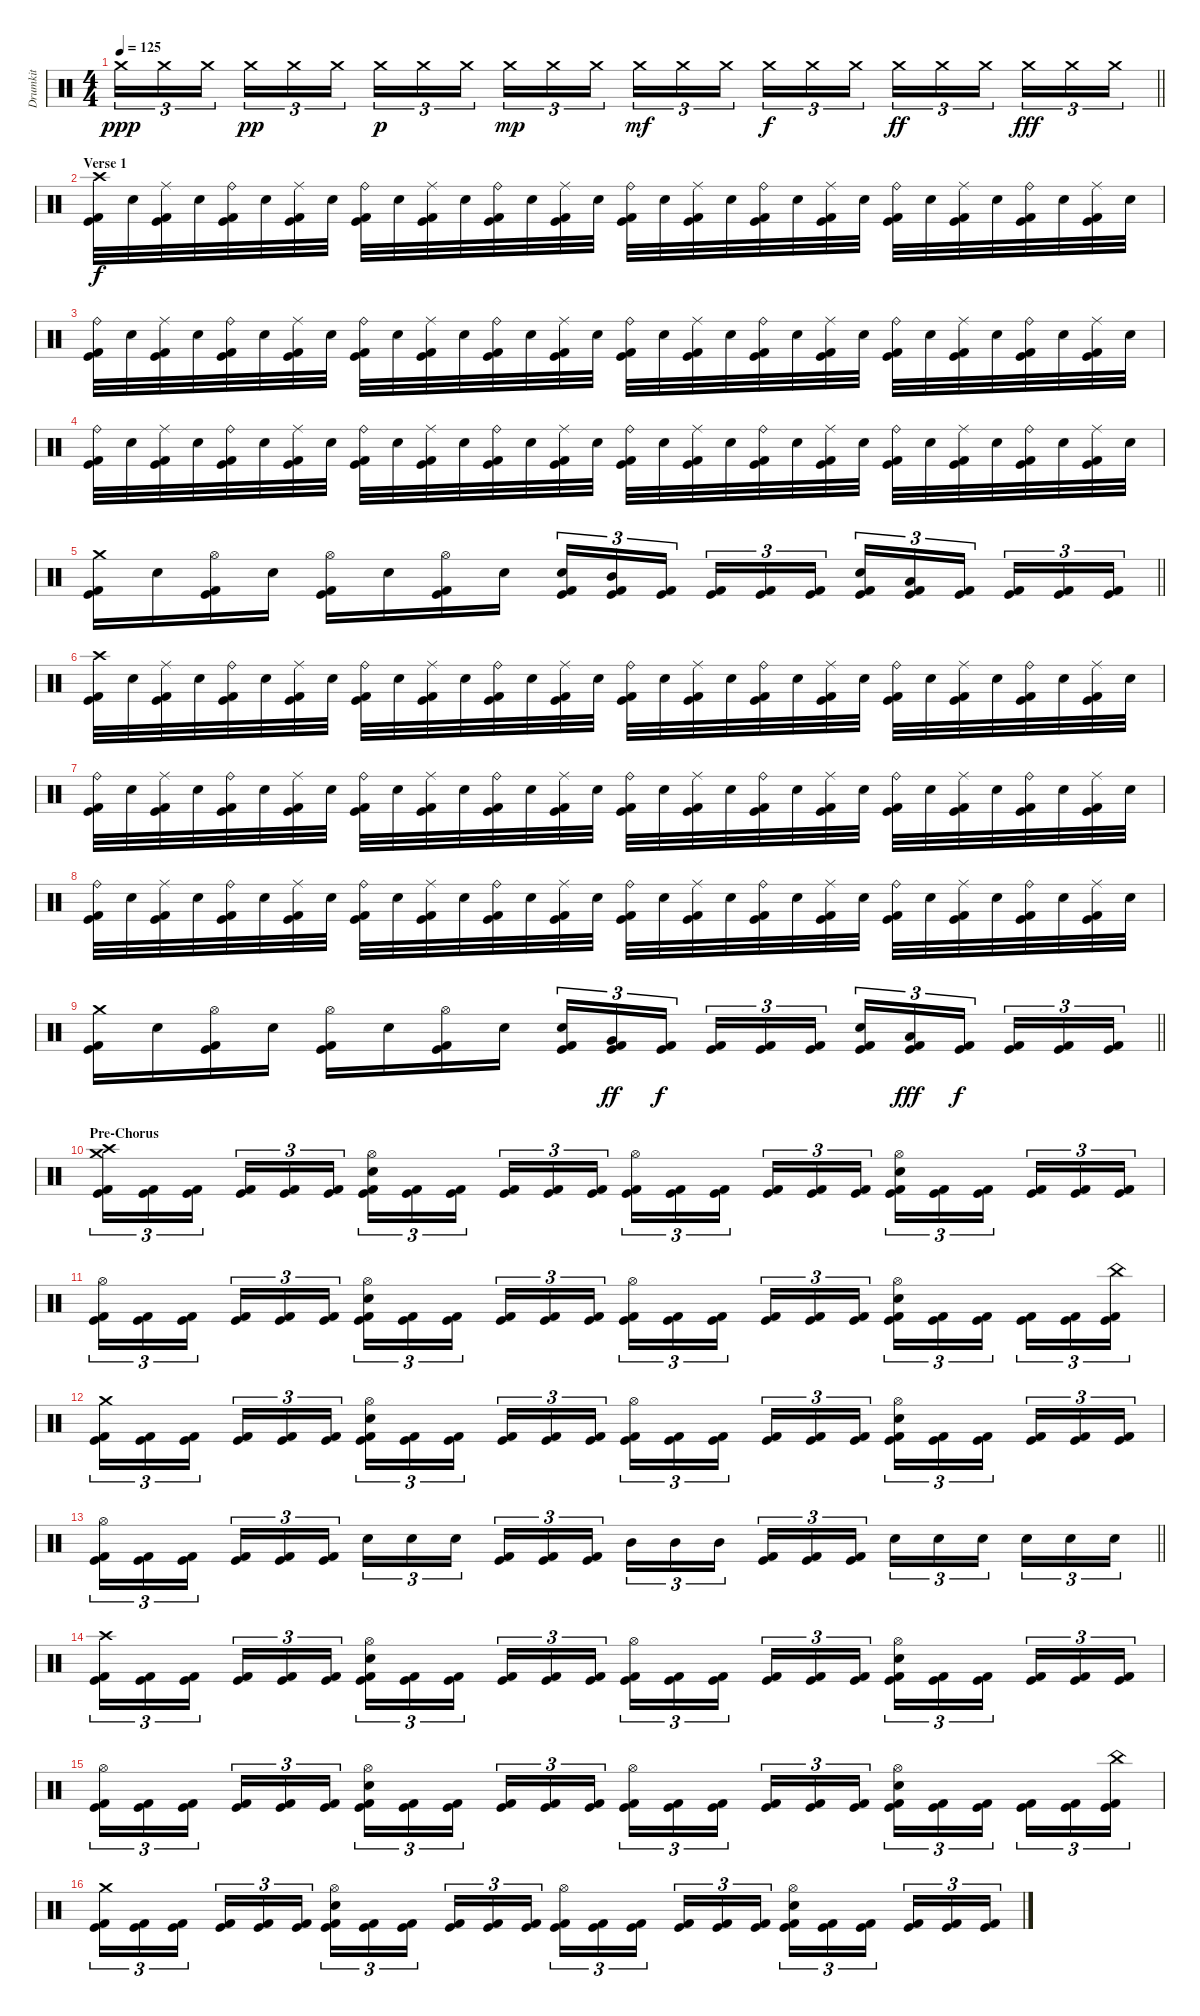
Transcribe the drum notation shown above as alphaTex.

\track ("Drumkit" "Drumkit") {instrument percussion}
\staff {score}
\articulation defaults
\ts (4 4)
\tempo 125
\clef neutral
\barLineRight lightlight
\ks c "Crash medium (hit)".16{tu (3 2) dy ppp} "Crash medium (hit)".16{tu (3 2)} "Crash medium (hit)".16{tu (3 2) beam splitsecondary} "Crash medium (hit)".16{tu (3 2) dy pp} "Crash medium (hit)".16{tu (3 2)} "Crash medium (hit)".16{tu (3 2)} "Crash medium (hit)".16{tu (3 2) dy p} "Crash medium (hit)".16{tu (3 2)} "Crash medium (hit)".16{tu (3 2) beam splitsecondary} "Crash medium (hit)".16{tu (3 2) dy mp} "Crash medium (hit)".16{tu (3 2)} "Crash medium (hit)".16{tu (3 2)} "Crash medium (hit)".16{tu (3 2) dy mf} "Crash medium (hit)".16{tu (3 2)} "Crash medium (hit)".16{tu (3 2) beam splitsecondary} "Crash medium (hit)".16{tu (3 2) dy f} "Crash medium (hit)".16{tu (3 2)} "Crash medium (hit)".16{tu (3 2)} "Crash medium (hit)".16{tu (3 2) dy ff} "Crash medium (hit)".16{tu (3 2)} "Crash medium (hit)".16{tu (3 2) beam splitsecondary} "Crash medium (hit)".16{tu (3 2) dy fff} "Crash medium (hit)".16{tu (3 2)} "Crash medium (hit)".16{tu (3 2)}
|
\section ("" "Verse 1")
("Crash high (hit)" "Kick (hit)" "Kick (hit) 2").32{dy f} "Electric Snare (hit)".32 ("Ride (middle)" "Kick (hit)" "Kick (hit) 2").32 "Electric Snare (hit)".32 ("Ride (bell)" "Kick (hit)" "Kick (hit) 2").32 "Electric Snare (hit)".32 ("Ride (middle)" "Kick (hit)" "Kick (hit) 2").32 "Electric Snare (hit)".32 ("Ride (bell)" "Kick (hit)" "Kick (hit) 2").32 "Electric Snare (hit)".32 ("Ride (middle)" "Kick (hit)" "Kick (hit) 2").32 "Electric Snare (hit)".32 ("Ride (bell)" "Kick (hit)" "Kick (hit) 2").32 "Electric Snare (hit)".32 ("Ride (middle)" "Kick (hit)" "Kick (hit) 2").32 "Electric Snare (hit)".32 ("Ride (bell)" "Kick (hit)" "Kick (hit) 2").32 "Electric Snare (hit)".32 ("Ride (middle)" "Kick (hit)" "Kick (hit) 2").32 "Electric Snare (hit)".32 ("Ride (bell)" "Kick (hit)" "Kick (hit) 2").32 "Electric Snare (hit)".32 ("Ride (middle)" "Kick (hit)" "Kick (hit) 2").32 "Electric Snare (hit)".32 ("Ride (bell)" "Kick (hit)" "Kick (hit) 2").32 "Electric Snare (hit)".32 ("Ride (middle)" "Kick (hit)" "Kick (hit) 2").32 "Electric Snare (hit)".32 ("Ride (bell)" "Kick (hit)" "Kick (hit) 2").32 "Electric Snare (hit)".32 ("Ride (middle)" "Kick (hit)" "Kick (hit) 2").32 "Electric Snare (hit)".32 |
("Ride (bell)" "Kick (hit)" "Kick (hit) 2").32 "Electric Snare (hit)".32 ("Ride (middle)" "Kick (hit)" "Kick (hit) 2").32 "Electric Snare (hit)".32 ("Ride (bell)" "Kick (hit)" "Kick (hit) 2").32 "Electric Snare (hit)".32 ("Ride (middle)" "Kick (hit)" "Kick (hit) 2").32 "Electric Snare (hit)".32 ("Ride (bell)" "Kick (hit)" "Kick (hit) 2").32 "Electric Snare (hit)".32 ("Ride (middle)" "Kick (hit)" "Kick (hit) 2").32 "Electric Snare (hit)".32 ("Ride (bell)" "Kick (hit)" "Kick (hit) 2").32 "Electric Snare (hit)".32 ("Ride (middle)" "Kick (hit)" "Kick (hit) 2").32 "Electric Snare (hit)".32 ("Ride (bell)" "Kick (hit)" "Kick (hit) 2").32 "Electric Snare (hit)".32 ("Ride (middle)" "Kick (hit)" "Kick (hit) 2").32 "Electric Snare (hit)".32 ("Ride (bell)" "Kick (hit)" "Kick (hit) 2").32 "Electric Snare (hit)".32 ("Ride (middle)" "Kick (hit)" "Kick (hit) 2").32 "Electric Snare (hit)".32 ("Ride (bell)" "Kick (hit)" "Kick (hit) 2").32 "Electric Snare (hit)".32 ("Ride (middle)" "Kick (hit)" "Kick (hit) 2").32 "Electric Snare (hit)".32 ("Ride (bell)" "Kick (hit)" "Kick (hit) 2").32 "Electric Snare (hit)".32 ("Ride (middle)" "Kick (hit)" "Kick (hit) 2").32 "Electric Snare (hit)".32 |
("Ride (bell)" "Kick (hit)" "Kick (hit) 2").32 "Electric Snare (hit)".32 ("Ride (middle)" "Kick (hit)" "Kick (hit) 2").32 "Electric Snare (hit)".32 ("Ride (bell)" "Kick (hit)" "Kick (hit) 2").32 "Electric Snare (hit)".32 ("Ride (middle)" "Kick (hit)" "Kick (hit) 2").32 "Electric Snare (hit)".32 ("Ride (bell)" "Kick (hit)" "Kick (hit) 2").32 "Electric Snare (hit)".32 ("Ride (middle)" "Kick (hit)" "Kick (hit) 2").32 "Electric Snare (hit)".32 ("Ride (bell)" "Kick (hit)" "Kick (hit) 2").32 "Electric Snare (hit)".32 ("Ride (middle)" "Kick (hit)" "Kick (hit) 2").32 "Electric Snare (hit)".32 ("Ride (bell)" "Kick (hit)" "Kick (hit) 2").32 "Electric Snare (hit)".32 ("Ride (middle)" "Kick (hit)" "Kick (hit) 2").32 "Electric Snare (hit)".32 ("Ride (bell)" "Kick (hit)" "Kick (hit) 2").32 "Electric Snare (hit)".32 ("Ride (middle)" "Kick (hit)" "Kick (hit) 2").32 "Electric Snare (hit)".32 ("Ride (bell)" "Kick (hit)" "Kick (hit) 2").32 "Electric Snare (hit)".32 ("Ride (middle)" "Kick (hit)" "Kick (hit) 2").32 "Electric Snare (hit)".32 ("Ride (bell)" "Kick (hit)" "Kick (hit) 2").32 "Electric Snare (hit)".32 ("Ride (middle)" "Kick (hit)" "Kick (hit) 2").32 "Electric Snare (hit)".32 |
\barLineRight lightlight
("Crash medium (hit)" "Kick (hit)" "Kick (hit) 2").16 "Electric Snare (hit)".16 ("Hi-Hat (open)" "Kick (hit)" "Kick (hit) 2").16 "Electric Snare (hit)".16 ("Hi-Hat (open)" "Kick (hit)" "Kick (hit) 2").16 "Electric Snare (hit)".16 ("Hi-Hat (open)" "Kick (hit)" "Kick (hit) 2").16 "Electric Snare (hit)".16 ("Electric Snare (hit)" "Kick (hit)" "Kick (hit) 2").16{tu (3 2)} ("Mid Tom (hit)" "Kick (hit)" "Kick (hit) 2").16{tu (3 2)} ("Kick (hit)" "Kick (hit) 2").16{tu (3 2) beam splitsecondary} ("Kick (hit)" "Kick (hit) 2").16{tu (3 2)} ("Kick (hit)" "Kick (hit) 2").16{tu (3 2)} ("Kick (hit)" "Kick (hit) 2").16{tu (3 2)} ("Electric Snare (hit)" "Kick (hit)" "Kick (hit) 2").16{tu (3 2)} ("Low Tom (hit)" "Kick (hit)" "Kick (hit) 2").16{tu (3 2)} ("Kick (hit)" "Kick (hit) 2").16{tu (3 2) beam splitsecondary} ("Kick (hit)" "Kick (hit) 2").16{tu (3 2)} ("Kick (hit)" "Kick (hit) 2").16{tu (3 2)} ("Kick (hit)" "Kick (hit) 2").16{tu (3 2)} |
("Crash high (hit)" "Kick (hit)" "Kick (hit) 2").32 "Electric Snare (hit)".32 ("Ride (middle)" "Kick (hit)" "Kick (hit) 2").32 "Electric Snare (hit)".32 ("Ride (bell)" "Kick (hit)" "Kick (hit) 2").32 "Electric Snare (hit)".32 ("Ride (middle)" "Kick (hit)" "Kick (hit) 2").32 "Electric Snare (hit)".32 ("Ride (bell)" "Kick (hit)" "Kick (hit) 2").32 "Electric Snare (hit)".32 ("Ride (middle)" "Kick (hit)" "Kick (hit) 2").32 "Electric Snare (hit)".32 ("Ride (bell)" "Kick (hit)" "Kick (hit) 2").32 "Electric Snare (hit)".32 ("Ride (middle)" "Kick (hit)" "Kick (hit) 2").32 "Electric Snare (hit)".32 ("Ride (bell)" "Kick (hit)" "Kick (hit) 2").32 "Electric Snare (hit)".32 ("Ride (middle)" "Kick (hit)" "Kick (hit) 2").32 "Electric Snare (hit)".32 ("Ride (bell)" "Kick (hit)" "Kick (hit) 2").32 "Electric Snare (hit)".32 ("Ride (middle)" "Kick (hit)" "Kick (hit) 2").32 "Electric Snare (hit)".32 ("Ride (bell)" "Kick (hit)" "Kick (hit) 2").32 "Electric Snare (hit)".32 ("Ride (middle)" "Kick (hit)" "Kick (hit) 2").32 "Electric Snare (hit)".32 ("Ride (bell)" "Kick (hit)" "Kick (hit) 2").32 "Electric Snare (hit)".32 ("Ride (middle)" "Kick (hit)" "Kick (hit) 2").32 "Electric Snare (hit)".32 |
("Ride (bell)" "Kick (hit)" "Kick (hit) 2").32 "Electric Snare (hit)".32 ("Ride (middle)" "Kick (hit)" "Kick (hit) 2").32 "Electric Snare (hit)".32 ("Ride (bell)" "Kick (hit)" "Kick (hit) 2").32 "Electric Snare (hit)".32 ("Ride (middle)" "Kick (hit)" "Kick (hit) 2").32 "Electric Snare (hit)".32 ("Ride (bell)" "Kick (hit)" "Kick (hit) 2").32 "Electric Snare (hit)".32 ("Ride (middle)" "Kick (hit)" "Kick (hit) 2").32 "Electric Snare (hit)".32 ("Ride (bell)" "Kick (hit)" "Kick (hit) 2").32 "Electric Snare (hit)".32 ("Ride (middle)" "Kick (hit)" "Kick (hit) 2").32 "Electric Snare (hit)".32 ("Ride (bell)" "Kick (hit)" "Kick (hit) 2").32 "Electric Snare (hit)".32 ("Ride (middle)" "Kick (hit)" "Kick (hit) 2").32 "Electric Snare (hit)".32 ("Ride (bell)" "Kick (hit)" "Kick (hit) 2").32 "Electric Snare (hit)".32 ("Ride (middle)" "Kick (hit)" "Kick (hit) 2").32 "Electric Snare (hit)".32 ("Ride (bell)" "Kick (hit)" "Kick (hit) 2").32 "Electric Snare (hit)".32 ("Ride (middle)" "Kick (hit)" "Kick (hit) 2").32 "Electric Snare (hit)".32 ("Ride (bell)" "Kick (hit)" "Kick (hit) 2").32 "Electric Snare (hit)".32 ("Ride (middle)" "Kick (hit)" "Kick (hit) 2").32 "Electric Snare (hit)".32 |
("Ride (bell)" "Kick (hit)" "Kick (hit) 2").32 "Electric Snare (hit)".32 ("Ride (middle)" "Kick (hit)" "Kick (hit) 2").32 "Electric Snare (hit)".32 ("Ride (bell)" "Kick (hit)" "Kick (hit) 2").32 "Electric Snare (hit)".32 ("Ride (middle)" "Kick (hit)" "Kick (hit) 2").32 "Electric Snare (hit)".32 ("Ride (bell)" "Kick (hit)" "Kick (hit) 2").32 "Electric Snare (hit)".32 ("Ride (middle)" "Kick (hit)" "Kick (hit) 2").32 "Electric Snare (hit)".32 ("Ride (bell)" "Kick (hit)" "Kick (hit) 2").32 "Electric Snare (hit)".32 ("Ride (middle)" "Kick (hit)" "Kick (hit) 2").32 "Electric Snare (hit)".32 ("Ride (bell)" "Kick (hit)" "Kick (hit) 2").32 "Electric Snare (hit)".32 ("Ride (middle)" "Kick (hit)" "Kick (hit) 2").32 "Electric Snare (hit)".32 ("Ride (bell)" "Kick (hit)" "Kick (hit) 2").32 "Electric Snare (hit)".32 ("Ride (middle)" "Kick (hit)" "Kick (hit) 2").32 "Electric Snare (hit)".32 ("Ride (bell)" "Kick (hit)" "Kick (hit) 2").32 "Electric Snare (hit)".32 ("Ride (middle)" "Kick (hit)" "Kick (hit) 2").32 "Electric Snare (hit)".32 ("Ride (bell)" "Kick (hit)" "Kick (hit) 2").32 "Electric Snare (hit)".32 ("Ride (middle)" "Kick (hit)" "Kick (hit) 2").32 "Electric Snare (hit)".32 |
\barLineRight lightlight
("Crash medium (hit)" "Kick (hit)" "Kick (hit) 2").16 "Electric Snare (hit)".16 ("Hi-Hat (open)" "Kick (hit)" "Kick (hit) 2").16 "Electric Snare (hit)".16 ("Hi-Hat (open)" "Kick (hit)" "Kick (hit) 2").16 "Electric Snare (hit)".16 ("Hi-Hat (open)" "Kick (hit)" "Kick (hit) 2").16 "Electric Snare (hit)".16 ("Electric Snare (hit)" "Kick (hit)" "Kick (hit) 2").16{tu (3 2)} ("Very Low Tom (hit)" "Kick (hit)" "Kick (hit) 2").16{tu (3 2) dy ff} ("Kick (hit)" "Kick (hit) 2").16{tu (3 2) dy f beam splitsecondary} ("Kick (hit)" "Kick (hit) 2").16{tu (3 2)} ("Kick (hit)" "Kick (hit) 2").16{tu (3 2)} ("Kick (hit)" "Kick (hit) 2").16{tu (3 2)} ("Electric Snare (hit)" "Kick (hit)" "Kick (hit) 2").16{tu (3 2)} ("Low Floor Tom (hit)" "Kick (hit)" "Kick (hit) 2").16{tu (3 2) dy fff} ("Kick (hit)" "Kick (hit) 2").16{tu (3 2) dy f beam splitsecondary} ("Kick (hit)" "Kick (hit) 2").16{tu (3 2)} ("Kick (hit)" "Kick (hit) 2").16{tu (3 2)} ("Kick (hit)" "Kick (hit) 2").16{tu (3 2)} |
\section ("" "Pre-Chorus")
("Crash high (hit)" "Crash medium (hit)" "Kick (hit)" "Kick (hit) 2").16{tu (3 2)} ("Kick (hit)" "Kick (hit) 2").16{tu (3 2)} ("Kick (hit)" "Kick (hit) 2").16{tu (3 2) beam splitsecondary} ("Kick (hit)" "Kick (hit) 2").16{tu (3 2)} ("Kick (hit)" "Kick (hit) 2").16{tu (3 2)} ("Kick (hit)" "Kick (hit) 2").16{tu (3 2)} ("Hi-Hat (open)" "Electric Snare (hit)" "Kick (hit)" "Kick (hit) 2").16{tu (3 2)} ("Kick (hit)" "Kick (hit) 2").16{tu (3 2)} ("Kick (hit)" "Kick (hit) 2").16{tu (3 2) beam splitsecondary} ("Kick (hit)" "Kick (hit) 2").16{tu (3 2)} ("Kick (hit)" "Kick (hit) 2").16{tu (3 2)} ("Kick (hit)" "Kick (hit) 2").16{tu (3 2)} ("Hi-Hat (open)" "Kick (hit)" "Kick (hit) 2").16{tu (3 2)} ("Kick (hit)" "Kick (hit) 2").16{tu (3 2)} ("Kick (hit)" "Kick (hit) 2").16{tu (3 2) beam splitsecondary} ("Kick (hit)" "Kick (hit) 2").16{tu (3 2)} ("Kick (hit)" "Kick (hit) 2").16{tu (3 2)} ("Kick (hit)" "Kick (hit) 2").16{tu (3 2)} ("Hi-Hat (open)" "Electric Snare (hit)" "Kick (hit)" "Kick (hit) 2").16{tu (3 2)} ("Kick (hit)" "Kick (hit) 2").16{tu (3 2)} ("Kick (hit)" "Kick (hit) 2").16{tu (3 2) beam splitsecondary} ("Kick (hit)" "Kick (hit) 2").16{tu (3 2)} ("Kick (hit)" "Kick (hit) 2").16{tu (3 2)} ("Kick (hit)" "Kick (hit) 2").16{tu (3 2)} |
("Hi-Hat (open)" "Kick (hit)" "Kick (hit) 2").16{tu (3 2)} ("Kick (hit)" "Kick (hit) 2").16{tu (3 2)} ("Kick (hit)" "Kick (hit) 2").16{tu (3 2) beam splitsecondary} ("Kick (hit)" "Kick (hit) 2").16{tu (3 2)} ("Kick (hit)" "Kick (hit) 2").16{tu (3 2)} ("Kick (hit)" "Kick (hit) 2").16{tu (3 2)} ("Hi-Hat (open)" "Electric Snare (hit)" "Kick (hit)" "Kick (hit) 2").16{tu (3 2)} ("Kick (hit)" "Kick (hit) 2").16{tu (3 2)} ("Kick (hit)" "Kick (hit) 2").16{tu (3 2) beam splitsecondary} ("Kick (hit)" "Kick (hit) 2").16{tu (3 2)} ("Kick (hit)" "Kick (hit) 2").16{tu (3 2)} ("Kick (hit)" "Kick (hit) 2").16{tu (3 2)} ("Hi-Hat (open)" "Kick (hit)" "Kick (hit) 2").16{tu (3 2)} ("Kick (hit)" "Kick (hit) 2").16{tu (3 2)} ("Kick (hit)" "Kick (hit) 2").16{tu (3 2) beam splitsecondary} ("Kick (hit)" "Kick (hit) 2").16{tu (3 2)} ("Kick (hit)" "Kick (hit) 2").16{tu (3 2)} ("Kick (hit)" "Kick (hit) 2").16{tu (3 2)} ("Hi-Hat (open)" "Electric Snare (hit)" "Kick (hit)" "Kick (hit) 2").16{tu (3 2)} ("Kick (hit)" "Kick (hit) 2").16{tu (3 2)} ("Kick (hit)" "Kick (hit) 2").16{tu (3 2) beam splitsecondary} ("Kick (hit)" "Kick (hit) 2").16{tu (3 2)} ("Kick (hit)" "Kick (hit) 2").16{tu (3 2)} ("China (hit)" "Kick (hit)" "Kick (hit) 2").16{tu (3 2)} |
("Crash medium (hit)" "Kick (hit)" "Kick (hit) 2").16{tu (3 2)} ("Kick (hit)" "Kick (hit) 2").16{tu (3 2)} ("Kick (hit)" "Kick (hit) 2").16{tu (3 2) beam splitsecondary} ("Kick (hit)" "Kick (hit) 2").16{tu (3 2)} ("Kick (hit)" "Kick (hit) 2").16{tu (3 2)} ("Kick (hit)" "Kick (hit) 2").16{tu (3 2)} ("Hi-Hat (open)" "Electric Snare (hit)" "Kick (hit)" "Kick (hit) 2").16{tu (3 2)} ("Kick (hit)" "Kick (hit) 2").16{tu (3 2)} ("Kick (hit)" "Kick (hit) 2").16{tu (3 2) beam splitsecondary} ("Kick (hit)" "Kick (hit) 2").16{tu (3 2)} ("Kick (hit)" "Kick (hit) 2").16{tu (3 2)} ("Kick (hit)" "Kick (hit) 2").16{tu (3 2)} ("Hi-Hat (open)" "Kick (hit)" "Kick (hit) 2").16{tu (3 2)} ("Kick (hit)" "Kick (hit) 2").16{tu (3 2)} ("Kick (hit)" "Kick (hit) 2").16{tu (3 2) beam splitsecondary} ("Kick (hit)" "Kick (hit) 2").16{tu (3 2)} ("Kick (hit)" "Kick (hit) 2").16{tu (3 2)} ("Kick (hit)" "Kick (hit) 2").16{tu (3 2)} ("Hi-Hat (open)" "Electric Snare (hit)" "Kick (hit)" "Kick (hit) 2").16{tu (3 2)} ("Kick (hit)" "Kick (hit) 2").16{tu (3 2)} ("Kick (hit)" "Kick (hit) 2").16{tu (3 2) beam splitsecondary} ("Kick (hit)" "Kick (hit) 2").16{tu (3 2)} ("Kick (hit)" "Kick (hit) 2").16{tu (3 2)} ("Kick (hit)" "Kick (hit) 2").16{tu (3 2)} |
\barLineRight lightlight
("Hi-Hat (open)" "Kick (hit)" "Kick (hit) 2").16{tu (3 2)} ("Kick (hit)" "Kick (hit) 2").16{tu (3 2)} ("Kick (hit)" "Kick (hit) 2").16{tu (3 2) beam splitsecondary} ("Kick (hit)" "Kick (hit) 2").16{tu (3 2)} ("Kick (hit)" "Kick (hit) 2").16{tu (3 2)} ("Kick (hit)" "Kick (hit) 2").16{tu (3 2)} "Electric Snare (hit)".16{tu (3 2)} "Electric Snare (hit)".16{tu (3 2)} "Electric Snare (hit)".16{tu (3 2) beam splitsecondary} ("Kick (hit)" "Kick (hit) 2").16{tu (3 2)} ("Kick (hit)" "Kick (hit) 2").16{tu (3 2)} ("Kick (hit)" "Kick (hit) 2").16{tu (3 2)} "Mid Tom (hit)".16{tu (3 2)} "Mid Tom (hit)".16{tu (3 2)} "Mid Tom (hit)".16{tu (3 2) beam splitsecondary} ("Kick (hit)" "Kick (hit) 2").16{tu (3 2)} ("Kick (hit)" "Kick (hit) 2").16{tu (3 2)} ("Kick (hit)" "Kick (hit) 2").16{tu (3 2)} "Electric Snare (hit)".16{tu (3 2)} "Electric Snare (hit)".16{tu (3 2)} "Electric Snare (hit)".16{tu (3 2) beam splitsecondary} "Electric Snare (hit)".16{tu (3 2)} "Electric Snare (hit)".16{tu (3 2)} "Electric Snare (hit)".16{tu (3 2)} |
("Crash high (hit)" "Kick (hit)" "Kick (hit) 2").16{tu (3 2)} ("Kick (hit)" "Kick (hit) 2").16{tu (3 2)} ("Kick (hit)" "Kick (hit) 2").16{tu (3 2) beam splitsecondary} ("Kick (hit)" "Kick (hit) 2").16{tu (3 2)} ("Kick (hit)" "Kick (hit) 2").16{tu (3 2)} ("Kick (hit)" "Kick (hit) 2").16{tu (3 2)} ("Hi-Hat (open)" "Electric Snare (hit)" "Kick (hit)" "Kick (hit) 2").16{tu (3 2)} ("Kick (hit)" "Kick (hit) 2").16{tu (3 2)} ("Kick (hit)" "Kick (hit) 2").16{tu (3 2) beam splitsecondary} ("Kick (hit)" "Kick (hit) 2").16{tu (3 2)} ("Kick (hit)" "Kick (hit) 2").16{tu (3 2)} ("Kick (hit)" "Kick (hit) 2").16{tu (3 2)} ("Hi-Hat (open)" "Kick (hit)" "Kick (hit) 2").16{tu (3 2)} ("Kick (hit)" "Kick (hit) 2").16{tu (3 2)} ("Kick (hit)" "Kick (hit) 2").16{tu (3 2) beam splitsecondary} ("Kick (hit)" "Kick (hit) 2").16{tu (3 2)} ("Kick (hit)" "Kick (hit) 2").16{tu (3 2)} ("Kick (hit)" "Kick (hit) 2").16{tu (3 2)} ("Hi-Hat (open)" "Electric Snare (hit)" "Kick (hit)" "Kick (hit) 2").16{tu (3 2)} ("Kick (hit)" "Kick (hit) 2").16{tu (3 2)} ("Kick (hit)" "Kick (hit) 2").16{tu (3 2) beam splitsecondary} ("Kick (hit)" "Kick (hit) 2").16{tu (3 2)} ("Kick (hit)" "Kick (hit) 2").16{tu (3 2)} ("Kick (hit)" "Kick (hit) 2").16{tu (3 2)} |
("Hi-Hat (open)" "Kick (hit)" "Kick (hit) 2").16{tu (3 2)} ("Kick (hit)" "Kick (hit) 2").16{tu (3 2)} ("Kick (hit)" "Kick (hit) 2").16{tu (3 2) beam splitsecondary} ("Kick (hit)" "Kick (hit) 2").16{tu (3 2)} ("Kick (hit)" "Kick (hit) 2").16{tu (3 2)} ("Kick (hit)" "Kick (hit) 2").16{tu (3 2)} ("Hi-Hat (open)" "Electric Snare (hit)" "Kick (hit)" "Kick (hit) 2").16{tu (3 2)} ("Kick (hit)" "Kick (hit) 2").16{tu (3 2)} ("Kick (hit)" "Kick (hit) 2").16{tu (3 2) beam splitsecondary} ("Kick (hit)" "Kick (hit) 2").16{tu (3 2)} ("Kick (hit)" "Kick (hit) 2").16{tu (3 2)} ("Kick (hit)" "Kick (hit) 2").16{tu (3 2)} ("Hi-Hat (open)" "Kick (hit)" "Kick (hit) 2").16{tu (3 2)} ("Kick (hit)" "Kick (hit) 2").16{tu (3 2)} ("Kick (hit)" "Kick (hit) 2").16{tu (3 2) beam splitsecondary} ("Kick (hit)" "Kick (hit) 2").16{tu (3 2)} ("Kick (hit)" "Kick (hit) 2").16{tu (3 2)} ("Kick (hit)" "Kick (hit) 2").16{tu (3 2)} ("Hi-Hat (open)" "Electric Snare (hit)" "Kick (hit)" "Kick (hit) 2").16{tu (3 2)} ("Kick (hit)" "Kick (hit) 2").16{tu (3 2)} ("Kick (hit)" "Kick (hit) 2").16{tu (3 2) beam splitsecondary} ("Kick (hit)" "Kick (hit) 2").16{tu (3 2)} ("Kick (hit)" "Kick (hit) 2").16{tu (3 2)} ("China (hit)" "Kick (hit)" "Kick (hit) 2").16{tu (3 2)} |
("Crash medium (hit)" "Kick (hit)" "Kick (hit) 2").16{tu (3 2)} ("Kick (hit)" "Kick (hit) 2").16{tu (3 2)} ("Kick (hit)" "Kick (hit) 2").16{tu (3 2) beam splitsecondary} ("Kick (hit)" "Kick (hit) 2").16{tu (3 2)} ("Kick (hit)" "Kick (hit) 2").16{tu (3 2)} ("Kick (hit)" "Kick (hit) 2").16{tu (3 2)} ("Hi-Hat (open)" "Electric Snare (hit)" "Kick (hit)" "Kick (hit) 2").16{tu (3 2)} ("Kick (hit)" "Kick (hit) 2").16{tu (3 2)} ("Kick (hit)" "Kick (hit) 2").16{tu (3 2) beam splitsecondary} ("Kick (hit)" "Kick (hit) 2").16{tu (3 2)} ("Kick (hit)" "Kick (hit) 2").16{tu (3 2)} ("Kick (hit)" "Kick (hit) 2").16{tu (3 2)} ("Hi-Hat (open)" "Kick (hit)" "Kick (hit) 2").16{tu (3 2)} ("Kick (hit)" "Kick (hit) 2").16{tu (3 2)} ("Kick (hit)" "Kick (hit) 2").16{tu (3 2) beam splitsecondary} ("Kick (hit)" "Kick (hit) 2").16{tu (3 2)} ("Kick (hit)" "Kick (hit) 2").16{tu (3 2)} ("Kick (hit)" "Kick (hit) 2").16{tu (3 2)} ("Hi-Hat (open)" "Electric Snare (hit)" "Kick (hit)" "Kick (hit) 2").16{tu (3 2)} ("Kick (hit)" "Kick (hit) 2").16{tu (3 2)} ("Kick (hit)" "Kick (hit) 2").16{tu (3 2) beam splitsecondary} ("Kick (hit)" "Kick (hit) 2").16{tu (3 2)} ("Kick (hit)" "Kick (hit) 2").16{tu (3 2)} ("Kick (hit)" "Kick (hit) 2").16{tu (3 2)}
